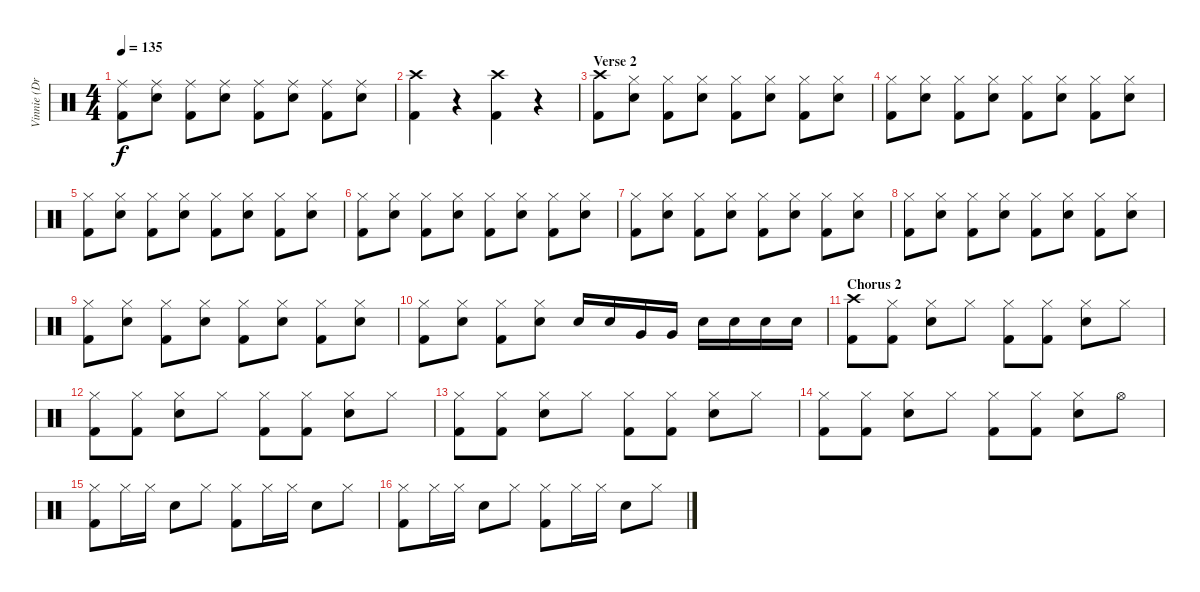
\track ("Vinnie (Drums)" "Vinnie (Dr") {instrument percussion}
\staff {score}
\articulation defaults
\ts (4 4)
\tempo 135
\clef neutral
\ks c
("Ride (middle)" "Kick (hit) 2").8{dy f} ("Ride (middle)" "Snare (hit) 2").8 ("Ride (middle)" "Kick (hit) 2").8 ("Ride (middle)" "Snare (hit) 2").8 ("Ride (middle)" "Kick (hit) 2").8 ("Ride (middle)" "Snare (hit) 2").8 ("Ride (middle)" "Kick (hit) 2").8 ("Ride (middle)" "Snare (hit) 2").8 |
("Crash high (hit)" "Kick (hit) 2").4 r.4 ("Crash high (hit)" "Kick (hit) 2").4 r.4 |
\section ("" "Verse 2")
("Crash high (hit)" "Kick (hit) 2").8 ("Hi-Hat (closed)" "Snare (hit) 2").8 ("Hi-Hat (closed)" "Kick (hit) 2").8 ("Hi-Hat (closed)" "Snare (hit) 2").8 ("Hi-Hat (closed)" "Kick (hit) 2").8 ("Hi-Hat (closed)" "Snare (hit) 2").8 ("Hi-Hat (closed)" "Kick (hit) 2").8 ("Hi-Hat (closed)" "Snare (hit) 2").8 |
("Hi-Hat (closed)" "Kick (hit) 2").8 ("Hi-Hat (closed)" "Snare (hit) 2").8 ("Hi-Hat (closed)" "Kick (hit) 2").8 ("Hi-Hat (closed)" "Snare (hit) 2").8 ("Hi-Hat (closed)" "Kick (hit) 2").8 ("Hi-Hat (closed)" "Snare (hit) 2").8 ("Hi-Hat (closed)" "Kick (hit) 2").8 ("Hi-Hat (closed)" "Snare (hit) 2").8 |
("Hi-Hat (closed)" "Kick (hit) 2").8 ("Hi-Hat (closed)" "Snare (hit) 2").8 ("Hi-Hat (closed)" "Kick (hit) 2").8 ("Hi-Hat (closed)" "Snare (hit) 2").8 ("Hi-Hat (closed)" "Kick (hit) 2").8 ("Hi-Hat (closed)" "Snare (hit) 2").8 ("Hi-Hat (closed)" "Kick (hit) 2").8 ("Hi-Hat (closed)" "Snare (hit) 2").8 |
("Hi-Hat (closed)" "Kick (hit) 2").8 ("Hi-Hat (closed)" "Snare (hit) 2").8 ("Hi-Hat (closed)" "Kick (hit) 2").8 ("Hi-Hat (closed)" "Snare (hit) 2").8 ("Hi-Hat (closed)" "Kick (hit) 2").8 ("Hi-Hat (closed)" "Snare (hit) 2").8 ("Hi-Hat (closed)" "Kick (hit) 2").8 ("Hi-Hat (closed)" "Snare (hit) 2").8 |
("Hi-Hat (closed)" "Kick (hit) 2").8 ("Hi-Hat (closed)" "Snare (hit) 2").8 ("Hi-Hat (closed)" "Kick (hit) 2").8 ("Hi-Hat (closed)" "Snare (hit) 2").8 ("Hi-Hat (closed)" "Kick (hit) 2").8 ("Hi-Hat (closed)" "Snare (hit) 2").8 ("Hi-Hat (closed)" "Kick (hit) 2").8 ("Hi-Hat (closed)" "Snare (hit) 2").8 |
("Hi-Hat (closed)" "Kick (hit) 2").8 ("Hi-Hat (closed)" "Snare (hit) 2").8 ("Hi-Hat (closed)" "Kick (hit) 2").8 ("Hi-Hat (closed)" "Snare (hit) 2").8 ("Hi-Hat (closed)" "Kick (hit) 2").8 ("Hi-Hat (closed)" "Snare (hit) 2").8 ("Hi-Hat (closed)" "Kick (hit) 2").8 ("Hi-Hat (closed)" "Snare (hit) 2").8 |
("Hi-Hat (closed)" "Kick (hit) 2").8 ("Hi-Hat (closed)" "Snare (hit) 2").8 ("Hi-Hat (closed)" "Kick (hit) 2").8 ("Hi-Hat (closed)" "Snare (hit) 2").8 ("Hi-Hat (closed)" "Kick (hit) 2").8 ("Hi-Hat (closed)" "Snare (hit) 2").8 ("Hi-Hat (closed)" "Kick (hit) 2").8 ("Hi-Hat (closed)" "Snare (hit) 2").8 |
("Hi-Hat (closed)" "Kick (hit) 2").8 ("Hi-Hat (closed)" "Snare (hit) 2").8 ("Hi-Hat (closed)" "Kick (hit) 2").8 ("Hi-Hat (closed)" "Snare (hit) 2").8 "Snare (hit) 2".16 "Snare (hit) 2".16 "Very Low Tom (hit)".16 "Very Low Tom (hit)".16 "Snare (hit) 2".16 "Snare (hit) 2".16 "Snare (hit) 2".16 "Snare (hit) 2".16 |
\section ("" "Chorus 2")
("Crash high (hit)" "Kick (hit) 2").8 ("Hi-Hat (closed)" "Kick (hit) 2").8 ("Hi-Hat (closed)" "Snare (hit) 2").8 "Hi-Hat (closed)".8 ("Hi-Hat (closed)" "Kick (hit) 2").8 ("Hi-Hat (closed)" "Kick (hit) 2").8 ("Hi-Hat (closed)" "Snare (hit) 2").8 "Hi-Hat (closed)".8 |
("Hi-Hat (closed)" "Kick (hit) 2").8 ("Hi-Hat (closed)" "Kick (hit) 2").8 ("Hi-Hat (closed)" "Snare (hit) 2").8 "Hi-Hat (closed)".8 ("Hi-Hat (closed)" "Kick (hit) 2").8 ("Hi-Hat (closed)" "Kick (hit) 2").8 ("Hi-Hat (closed)" "Snare (hit) 2").8 "Hi-Hat (closed)".8 |
("Hi-Hat (closed)" "Kick (hit) 2").8 ("Hi-Hat (closed)" "Kick (hit) 2").8 ("Hi-Hat (closed)" "Snare (hit) 2").8 "Hi-Hat (closed)".8 ("Hi-Hat (closed)" "Kick (hit) 2").8 ("Hi-Hat (closed)" "Kick (hit) 2").8 ("Hi-Hat (closed)" "Snare (hit) 2").8 "Hi-Hat (closed)".8 |
("Hi-Hat (closed)" "Kick (hit) 2").8 ("Hi-Hat (closed)" "Kick (hit) 2").8 ("Hi-Hat (closed)" "Snare (hit) 2").8 "Hi-Hat (closed)".8 ("Hi-Hat (closed)" "Kick (hit) 2").8 ("Hi-Hat (closed)" "Kick (hit) 2").8 ("Hi-Hat (closed)" "Snare (hit) 2").8 "Hi-Hat (open)".8 |
("Hi-Hat (closed)" "Kick (hit) 2").8 "Hi-Hat (closed)".16 "Hi-Hat (closed)".16 "Snare (hit) 2".8 "Hi-Hat (closed)".8 ("Hi-Hat (closed)" "Kick (hit) 2").8 "Hi-Hat (closed)".16 "Hi-Hat (closed)".16 "Snare (hit) 2".8 "Hi-Hat (closed)".8 |
("Hi-Hat (closed)" "Kick (hit) 2").8 "Hi-Hat (closed)".16 "Hi-Hat (closed)".16 "Snare (hit) 2".8 "Hi-Hat (closed)".8 ("Hi-Hat (closed)" "Kick (hit) 2").8 "Hi-Hat (closed)".16 "Hi-Hat (closed)".16 "Snare (hit) 2".8 "Hi-Hat (closed)".8
